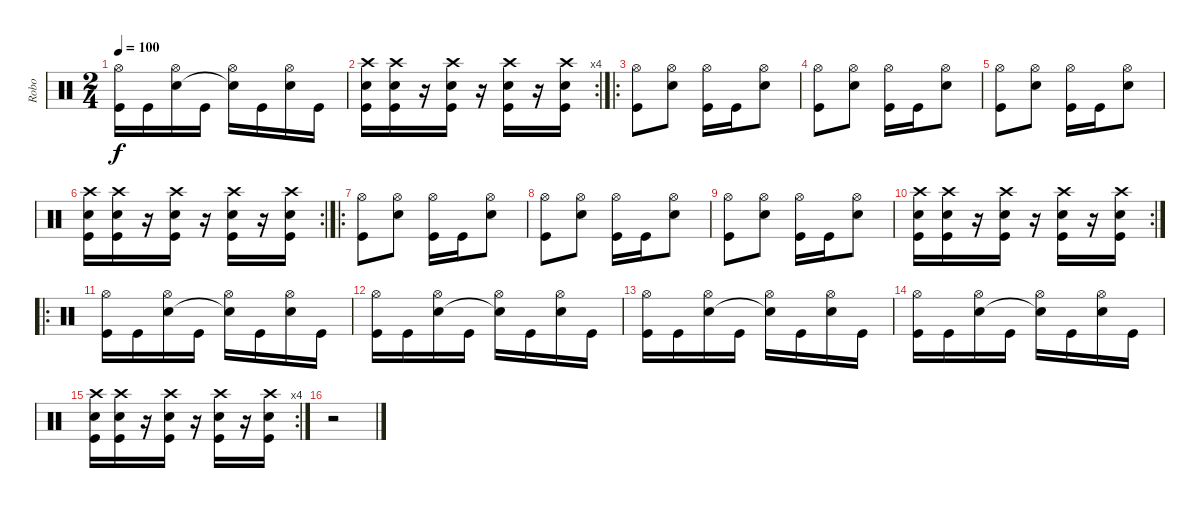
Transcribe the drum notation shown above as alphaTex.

\track ("Robo" "Robo") {instrument percussion}
\staff {score}
\articulation defaults
\ts (2 4)
\tempo 100
\clef neutral
\ks c
("Hi-Hat (open)" "Kick (hit)").16{dy f} "Kick (hit)".16 ("Hi-Hat (open)" "Snare (hit) 2").16 "Kick (hit)".16 ("Hi-Hat (open)" "Snare (hit)"{t}).16 "Kick (hit)".16 ("Hi-Hat (open)" "Snare (hit) 2").16 "Kick (hit)".16 |
\rc 4
("Crash high (hit)" "Snare (hit) 2" "Kick (hit)").16 ("Crash high (hit)" "Snare (hit) 2" "Kick (hit)").16 r.16 ("Crash high (hit)" "Snare (hit) 2" "Kick (hit)").16 r.16 ("Crash high (hit)" "Snare (hit) 2" "Kick (hit)").16 r.16 ("Crash high (hit)" "Snare (hit) 2" "Kick (hit)").16 |
\ro
("Hi-Hat (open)" "Kick (hit)").8 ("Hi-Hat (open)" "Snare (hit) 2").8 ("Hi-Hat (open)" "Kick (hit)").16 "Kick (hit)".16 ("Hi-Hat (open)" "Snare (hit) 2").8 |
("Hi-Hat (open)" "Kick (hit)").8 ("Hi-Hat (open)" "Snare (hit) 2").8 ("Hi-Hat (open)" "Kick (hit)").16 "Kick (hit)".16 ("Hi-Hat (open)" "Snare (hit) 2").8 |
("Hi-Hat (open)" "Kick (hit)").8 ("Hi-Hat (open)" "Snare (hit) 2").8 ("Hi-Hat (open)" "Kick (hit)").16 "Kick (hit)".16 ("Hi-Hat (open)" "Snare (hit) 2").8 |
\rc 2
("Crash high (hit)" "Snare (hit) 2" "Kick (hit)").16 ("Crash high (hit)" "Snare (hit) 2" "Kick (hit)").16 r.16 ("Crash high (hit)" "Snare (hit) 2" "Kick (hit)").16 r.16 ("Crash high (hit)" "Snare (hit) 2" "Kick (hit)").16 r.16 ("Crash high (hit)" "Snare (hit) 2" "Kick (hit)").16 |
\ro
("Hi-Hat (open)" "Kick (hit)").8 ("Hi-Hat (open)" "Snare (hit) 2").8 ("Hi-Hat (open)" "Kick (hit)").16 "Kick (hit)".16 ("Hi-Hat (open)" "Snare (hit) 2").8 |
("Hi-Hat (open)" "Kick (hit)").8 ("Hi-Hat (open)" "Snare (hit) 2").8 ("Hi-Hat (open)" "Kick (hit)").16 "Kick (hit)".16 ("Hi-Hat (open)" "Snare (hit) 2").8 |
("Hi-Hat (open)" "Kick (hit)").8 ("Hi-Hat (open)" "Snare (hit) 2").8 ("Hi-Hat (open)" "Kick (hit)").16 "Kick (hit)".16 ("Hi-Hat (open)" "Snare (hit) 2").8 |
\rc 2
("Crash high (hit)" "Snare (hit) 2" "Kick (hit)").16 ("Crash high (hit)" "Snare (hit) 2" "Kick (hit)").16 r.16 ("Crash high (hit)" "Snare (hit) 2" "Kick (hit)").16 r.16 ("Crash high (hit)" "Snare (hit) 2" "Kick (hit)").16 r.16 ("Crash high (hit)" "Snare (hit) 2" "Kick (hit)").16 |
\ro
("Hi-Hat (open)" "Kick (hit)").16 "Kick (hit)".16 ("Hi-Hat (open)" "Snare (hit) 2").16 "Kick (hit)".16 ("Hi-Hat (open)" "Snare (hit)"{t}).16 "Kick (hit)".16 ("Hi-Hat (open)" "Snare (hit) 2").16 "Kick (hit)".16 |
("Hi-Hat (open)" "Kick (hit)").16 "Kick (hit)".16 ("Hi-Hat (open)" "Snare (hit) 2").16 "Kick (hit)".16 ("Hi-Hat (open)" "Snare (hit)"{t}).16 "Kick (hit)".16 ("Hi-Hat (open)" "Snare (hit) 2").16 "Kick (hit)".16 |
("Hi-Hat (open)" "Kick (hit)").16 "Kick (hit)".16 ("Hi-Hat (open)" "Snare (hit) 2").16 "Kick (hit)".16 ("Hi-Hat (open)" "Snare (hit)"{t}).16 "Kick (hit)".16 ("Hi-Hat (open)" "Snare (hit) 2").16 "Kick (hit)".16 |
("Hi-Hat (open)" "Kick (hit)").16 "Kick (hit)".16 ("Hi-Hat (open)" "Snare (hit) 2").16 "Kick (hit)".16 ("Hi-Hat (open)" "Snare (hit)"{t}).16 "Kick (hit)".16 ("Hi-Hat (open)" "Snare (hit) 2").16 "Kick (hit)".16 |
\rc 4
("Crash high (hit)" "Snare (hit) 2" "Kick (hit)").16 ("Crash high (hit)" "Snare (hit) 2" "Kick (hit)").16 r.16 ("Crash high (hit)" "Snare (hit) 2" "Kick (hit)").16 r.16 ("Crash high (hit)" "Snare (hit) 2" "Kick (hit)").16 r.16 ("Crash high (hit)" "Snare (hit) 2" "Kick (hit)").16 |
r.2
